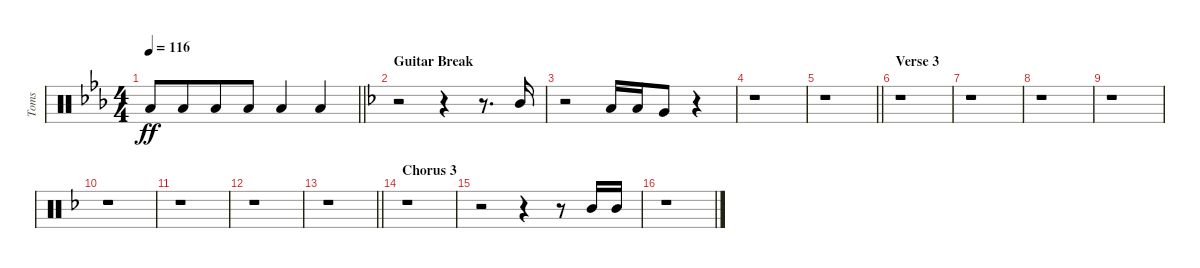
\track ("Toms" "Toms") {instrument percussion}
\staff {score}
\articulation defaults
\ts (4 4)
\tempo 116
\clef neutral
\barLineRight lightlight
\ks eb "Low Tom (hit)".8{dy ff balance 4 beam Up} "Low Tom (hit)".8{beam Up beam merge} "Low Tom (hit)".8{beam Up} "Low Tom (hit)".8{beam Up} "Low Tom (hit)".4{volume 0 beam Up} "Low Tom (hit)".4{volume 13 beam Up}
|
\section ("" "Guitar Break")
\ks f
r.2 r.4 r.8{d volume 13 balance 11} "Mid Tom (hit)".16{beam Up} |
r.2 "Low Tom (hit)".16{balance 6 beam Up} "Low Tom (hit)".16{beam Up} "Very Low Tom (hit)".8{balance 4 beam Up} r.4 |
r.1 |
\barLineRight lightlight
r.1 |
\section ("" "Verse 3")
r.1 |
r.1 |
r.1 |
r.1 |
r.1 |
r.1 |
r.1 |
\barLineRight lightlight
r.1 |
\section ("" "Chorus 3")
r.1 |
r.2 r.4 r.8{balance 11} "Mid Tom (hit)".16{beam Up} "Mid Tom (hit)".16{beam Up} |
r.1
